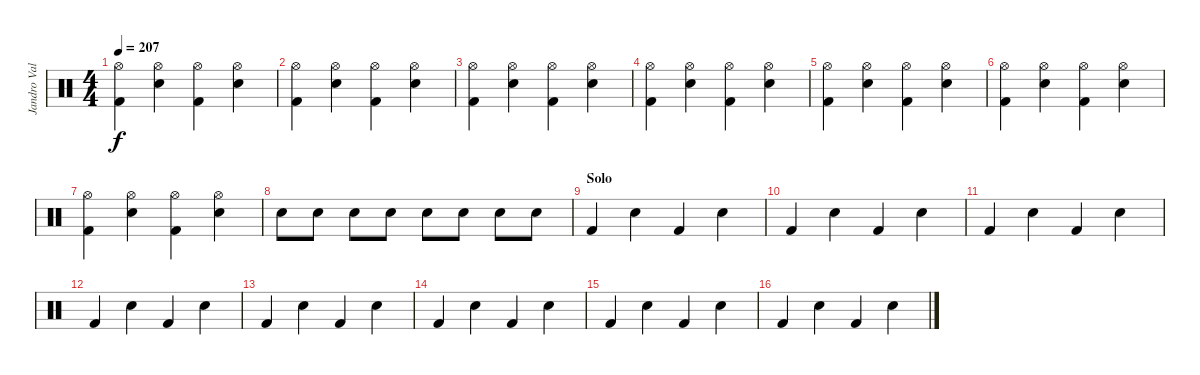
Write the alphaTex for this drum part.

\track ("Jandro Valázquez" "Jandro Val") {instrument percussion}
\staff {score}
\articulation defaults
\ts (4 4)
\tempo 207
\clef neutral
\ks c
("Hi-Hat (open)" "Kick (hit) 2").4{dy f} ("Hi-Hat (open)" "Snare (hit) 2").4 ("Hi-Hat (open)" "Kick (hit) 2").4 ("Hi-Hat (open)" "Snare (hit) 2").4 |
("Hi-Hat (open)" "Kick (hit) 2").4 ("Hi-Hat (open)" "Snare (hit) 2").4 ("Hi-Hat (open)" "Kick (hit) 2").4 ("Hi-Hat (open)" "Snare (hit) 2").4 |
("Hi-Hat (open)" "Kick (hit) 2").4 ("Hi-Hat (open)" "Snare (hit) 2").4 ("Hi-Hat (open)" "Kick (hit) 2").4 ("Hi-Hat (open)" "Snare (hit) 2").4 |
("Hi-Hat (open)" "Kick (hit) 2").4 ("Hi-Hat (open)" "Snare (hit) 2").4 ("Hi-Hat (open)" "Kick (hit) 2").4 ("Hi-Hat (open)" "Snare (hit) 2").4 |
("Hi-Hat (open)" "Kick (hit) 2").4 ("Hi-Hat (open)" "Snare (hit) 2").4 ("Hi-Hat (open)" "Kick (hit) 2").4 ("Hi-Hat (open)" "Snare (hit) 2").4 |
("Hi-Hat (open)" "Kick (hit) 2").4 ("Hi-Hat (open)" "Snare (hit) 2").4 ("Hi-Hat (open)" "Kick (hit) 2").4 ("Hi-Hat (open)" "Snare (hit) 2").4 |
("Hi-Hat (open)" "Kick (hit) 2").4 ("Hi-Hat (open)" "Snare (hit) 2").4 ("Hi-Hat (open)" "Kick (hit) 2").4 ("Hi-Hat (open)" "Snare (hit) 2").4 |
"Electric Snare (hit)".8 "Electric Snare (hit)".8 "Electric Snare (hit)".8 "Electric Snare (hit)".8 "Electric Snare (hit)".8 "Electric Snare (hit)".8 "Electric Snare (hit)".8 "Electric Snare (hit)".8 |
\section ("" "Solo")
"Kick (hit) 2".4{volume 10} "Snare (hit) 2".4 "Kick (hit) 2".4 "Snare (hit) 2".4 |
"Kick (hit) 2".4 "Snare (hit) 2".4 "Kick (hit) 2".4 "Snare (hit) 2".4 |
"Kick (hit) 2".4 "Snare (hit) 2".4 "Kick (hit) 2".4 "Snare (hit) 2".4 |
"Kick (hit) 2".4 "Snare (hit) 2".4 "Kick (hit) 2".4 "Snare (hit) 2".4 |
"Kick (hit) 2".4 "Snare (hit) 2".4 "Kick (hit) 2".4 "Snare (hit) 2".4 |
"Kick (hit) 2".4 "Snare (hit) 2".4 "Kick (hit) 2".4 "Snare (hit) 2".4 |
"Kick (hit) 2".4 "Snare (hit) 2".4 "Kick (hit) 2".4 "Snare (hit) 2".4 |
"Kick (hit) 2".4 "Snare (hit) 2".4 "Kick (hit) 2".4 "Snare (hit) 2".4
